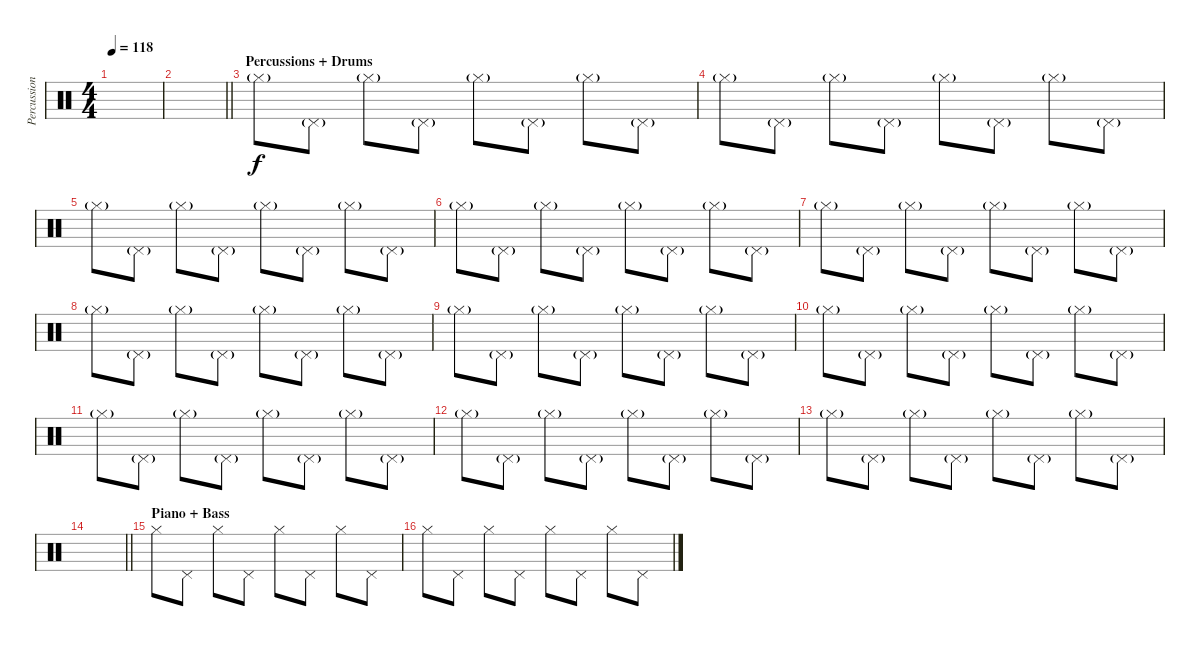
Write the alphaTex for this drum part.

\track ("Percussion (RSE)" "Percussion") {instrument percussion}
\staff {score}
\articulation defaults
\ts (4 4)
\tempo 118
\clef neutral
\ks c
|
\barLineRight lightlight
|
\section ("" "Percussions + Drums")
"Hi-Hat (closed)"{g}.8 "Pedal Hi-Hat (hit)"{g}.8 "Hi-Hat (closed)"{g}.8 "Pedal Hi-Hat (hit)"{g}.8 "Hi-Hat (closed)"{g}.8 "Pedal Hi-Hat (hit)"{g}.8 "Hi-Hat (closed)"{g}.8 "Pedal Hi-Hat (hit)"{g}.8 |
"Hi-Hat (closed)"{g}.8 "Pedal Hi-Hat (hit)"{g}.8 "Hi-Hat (closed)"{g}.8 "Pedal Hi-Hat (hit)"{g}.8 "Hi-Hat (closed)"{g}.8 "Pedal Hi-Hat (hit)"{g}.8 "Hi-Hat (closed)"{g}.8 "Pedal Hi-Hat (hit)"{g}.8 |
"Hi-Hat (closed)"{g}.8 "Pedal Hi-Hat (hit)"{g}.8 "Hi-Hat (closed)"{g}.8 "Pedal Hi-Hat (hit)"{g}.8 "Hi-Hat (closed)"{g}.8 "Pedal Hi-Hat (hit)"{g}.8 "Hi-Hat (closed)"{g}.8 "Pedal Hi-Hat (hit)"{g}.8 |
"Hi-Hat (closed)"{g}.8 "Pedal Hi-Hat (hit)"{g}.8 "Hi-Hat (closed)"{g}.8 "Pedal Hi-Hat (hit)"{g}.8 "Hi-Hat (closed)"{g}.8 "Pedal Hi-Hat (hit)"{g}.8 "Hi-Hat (closed)"{g}.8 "Pedal Hi-Hat (hit)"{g}.8 |
"Hi-Hat (closed)"{g}.8 "Pedal Hi-Hat (hit)"{g}.8 "Hi-Hat (closed)"{g}.8 "Pedal Hi-Hat (hit)"{g}.8 "Hi-Hat (closed)"{g}.8 "Pedal Hi-Hat (hit)"{g}.8 "Hi-Hat (closed)"{g}.8 "Pedal Hi-Hat (hit)"{g}.8 |
"Hi-Hat (closed)"{g}.8 "Pedal Hi-Hat (hit)"{g}.8 "Hi-Hat (closed)"{g}.8 "Pedal Hi-Hat (hit)"{g}.8 "Hi-Hat (closed)"{g}.8 "Pedal Hi-Hat (hit)"{g}.8 "Hi-Hat (closed)"{g}.8 "Pedal Hi-Hat (hit)"{g}.8 |
"Hi-Hat (closed)"{g}.8 "Pedal Hi-Hat (hit)"{g}.8 "Hi-Hat (closed)"{g}.8 "Pedal Hi-Hat (hit)"{g}.8 "Hi-Hat (closed)"{g}.8 "Pedal Hi-Hat (hit)"{g}.8 "Hi-Hat (closed)"{g}.8 "Pedal Hi-Hat (hit)"{g}.8 |
"Hi-Hat (closed)"{g}.8 "Pedal Hi-Hat (hit)"{g}.8 "Hi-Hat (closed)"{g}.8 "Pedal Hi-Hat (hit)"{g}.8 "Hi-Hat (closed)"{g}.8 "Pedal Hi-Hat (hit)"{g}.8 "Hi-Hat (closed)"{g}.8 "Pedal Hi-Hat (hit)"{g}.8 |
"Hi-Hat (closed)"{g}.8 "Pedal Hi-Hat (hit)"{g}.8 "Hi-Hat (closed)"{g}.8 "Pedal Hi-Hat (hit)"{g}.8 "Hi-Hat (closed)"{g}.8 "Pedal Hi-Hat (hit)"{g}.8 "Hi-Hat (closed)"{g}.8 "Pedal Hi-Hat (hit)"{g}.8 |
"Hi-Hat (closed)"{g}.8 "Pedal Hi-Hat (hit)"{g}.8 "Hi-Hat (closed)"{g}.8 "Pedal Hi-Hat (hit)"{g}.8 "Hi-Hat (closed)"{g}.8 "Pedal Hi-Hat (hit)"{g}.8 "Hi-Hat (closed)"{g}.8 "Pedal Hi-Hat (hit)"{g}.8 |
"Hi-Hat (closed)"{g}.8 "Pedal Hi-Hat (hit)"{g}.8 "Hi-Hat (closed)"{g}.8 "Pedal Hi-Hat (hit)"{g}.8 "Hi-Hat (closed)"{g}.8 "Pedal Hi-Hat (hit)"{g}.8 "Hi-Hat (closed)"{g}.8 "Pedal Hi-Hat (hit)"{g}.8 |
\barLineRight lightlight
|
\section ("" "Piano + Bass")
"Hi-Hat (closed)".8{dy f volume 10} "Pedal Hi-Hat (hit)".8 "Hi-Hat (closed)".8 "Pedal Hi-Hat (hit)".8 "Hi-Hat (closed)".8 "Pedal Hi-Hat (hit)".8 "Hi-Hat (closed)".8 "Pedal Hi-Hat (hit)".8 |
"Hi-Hat (closed)".8 "Pedal Hi-Hat (hit)".8 "Hi-Hat (closed)".8 "Pedal Hi-Hat (hit)".8 "Hi-Hat (closed)".8 "Pedal Hi-Hat (hit)".8 "Hi-Hat (closed)".8 "Pedal Hi-Hat (hit)".8
